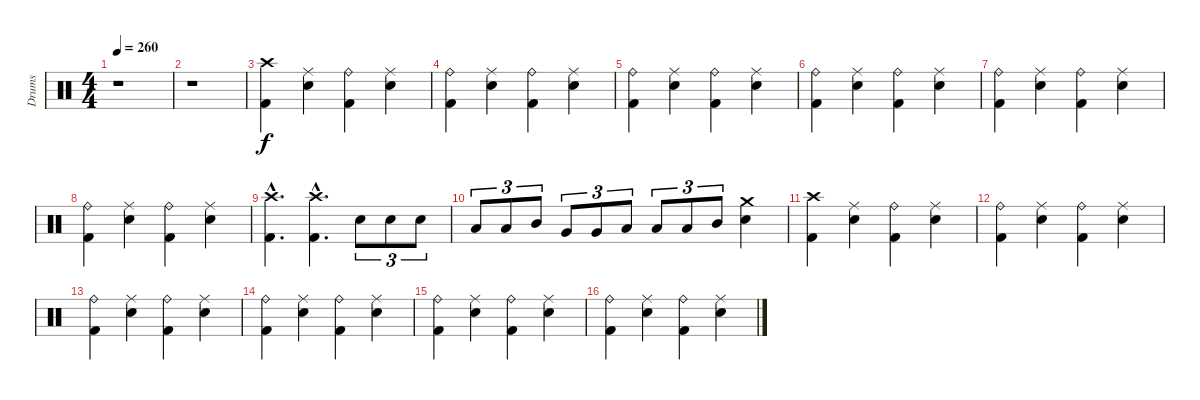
\track ("Drums" "Drums") {instrument percussion}
\staff {score}
\articulation defaults
\ts (4 4)
\tempo 260
\clef neutral
\ks c
r.1{dy f} |
r.1 |
("Crash high (hit)" "Kick (hit) 2").4 ("Ride (middle)" "Electric Snare (hit)").4 ("Ride (bell)" "Kick (hit) 2").4 ("Ride (middle)" "Electric Snare (hit)").4 |
("Ride (bell)" "Kick (hit) 2").4 ("Ride (middle)" "Electric Snare (hit)").4 ("Ride (bell)" "Kick (hit) 2").4 ("Ride (middle)" "Electric Snare (hit)").4 |
("Ride (bell)" "Kick (hit) 2").4 ("Ride (middle)" "Electric Snare (hit)").4 ("Ride (bell)" "Kick (hit) 2").4 ("Ride (middle)" "Electric Snare (hit)").4 |
("Ride (bell)" "Kick (hit) 2").4 ("Ride (middle)" "Electric Snare (hit)").4 ("Ride (bell)" "Kick (hit) 2").4 ("Ride (middle)" "Electric Snare (hit)").4 |
("Ride (bell)" "Kick (hit) 2").4 ("Ride (middle)" "Electric Snare (hit)").4 ("Ride (bell)" "Kick (hit) 2").4 ("Ride (middle)" "Electric Snare (hit)").4 |
("Ride (bell)" "Kick (hit) 2").4 ("Ride (middle)" "Electric Snare (hit)").4 ("Ride (bell)" "Kick (hit) 2").4 ("Ride (middle)" "Electric Snare (hit)").4 |
("Crash high (hit)"{hac} "Kick (hit) 2"{hac}).4{d} ("Crash high (hit)"{hac} "Kick (hit) 2"{hac}).4{d} "Electric Snare (hit)".8{tu (3 2)} "Electric Snare (hit)".8{tu (3 2)} "Electric Snare (hit)".8{tu (3 2)} |
"Low Tom (hit)".8{tu (3 2)} "Low Tom (hit)".8{tu (3 2)} "Mid Tom (hit)".8{tu (3 2)} "Very Low Tom (hit)".8{tu (3 2)} "Very Low Tom (hit)".8{tu (3 2)} "Low Tom (hit)".8{tu (3 2)} "Low Tom (hit)".8{tu (3 2)} "Low Tom (hit)".8{tu (3 2)} "Mid Tom (hit)".8{tu (3 2)} ("Crash medium (hit)" "Electric Snare (hit)").4 |
("Crash high (hit)" "Kick (hit) 2").4 ("Ride (middle)" "Electric Snare (hit)").4 ("Ride (bell)" "Kick (hit) 2").4 ("Ride (middle)" "Electric Snare (hit)").4 |
("Ride (bell)" "Kick (hit) 2").4 ("Ride (middle)" "Electric Snare (hit)").4 ("Ride (bell)" "Kick (hit) 2").4 ("Ride (middle)" "Electric Snare (hit)").4 |
("Ride (bell)" "Kick (hit) 2").4 ("Ride (middle)" "Electric Snare (hit)").4 ("Ride (bell)" "Kick (hit) 2").4 ("Ride (middle)" "Electric Snare (hit)").4 |
("Ride (bell)" "Kick (hit) 2").4 ("Ride (middle)" "Electric Snare (hit)").4 ("Ride (bell)" "Kick (hit) 2").4 ("Ride (middle)" "Electric Snare (hit)").4 |
("Ride (bell)" "Kick (hit) 2").4 ("Ride (middle)" "Electric Snare (hit)").4 ("Ride (bell)" "Kick (hit) 2").4 ("Ride (middle)" "Electric Snare (hit)").4 |
("Ride (bell)" "Kick (hit) 2").4 ("Ride (middle)" "Electric Snare (hit)").4 ("Ride (bell)" "Kick (hit) 2").4 ("Ride (middle)" "Electric Snare (hit)").4
